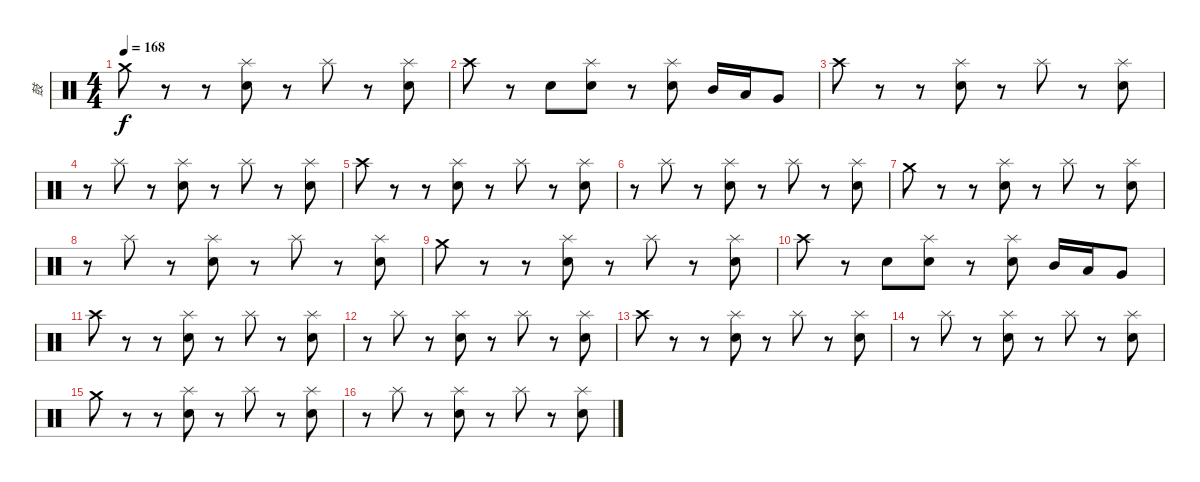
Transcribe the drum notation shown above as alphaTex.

\track ("鼓" "鼓") {instrument percussion}
\staff {score}
\articulation defaults
\ts (4 4)
\tempo 168
\clef neutral
\ks c "Crash medium (hit)".8{dy f}
r.8 r.8 ("Splash (hit)" "Snare (hit) 2").8 r.8 "Splash (hit)".8 r.8 ("Splash (hit)" "Snare (hit) 2").8 |
"Crash high (hit)".8 r.8 "Snare (hit) 2".8 ("Splash (hit)" "Snare (hit) 2").8 r.8 ("Splash (hit)" "Snare (hit) 2").8 "Mid Tom (hit)".16 "Low Tom (hit)".16 "Very Low Tom (hit)".8 |
"Crash high (hit)".8 r.8 r.8 ("Splash (hit)" "Snare (hit) 2").8 r.8 "Splash (hit)".8 r.8 ("Splash (hit)" "Snare (hit) 2").8 |
r.8 "Splash (hit)".8 r.8 ("Splash (hit)" "Snare (hit) 2").8 r.8 "Splash (hit)".8 r.8 ("Splash (hit)" "Snare (hit) 2").8 |
"Crash high (hit)".8 r.8 r.8 ("Splash (hit)" "Snare (hit) 2").8 r.8 "Splash (hit)".8 r.8 ("Splash (hit)" "Snare (hit) 2").8 |
r.8 "Splash (hit)".8 r.8 ("Splash (hit)" "Snare (hit) 2").8 r.8 "Splash (hit)".8 r.8 ("Splash (hit)" "Snare (hit) 2").8 |
"Crash medium (hit)".8 r.8 r.8 ("Splash (hit)" "Snare (hit) 2").8 r.8 "Splash (hit)".8 r.8 ("Splash (hit)" "Snare (hit) 2").8 |
r.8 "Splash (hit)".8 r.8 ("Splash (hit)" "Snare (hit) 2").8 r.8 "Splash (hit)".8 r.8 ("Splash (hit)" "Snare (hit) 2").8 |
"Crash medium (hit)".8 r.8 r.8 ("Splash (hit)" "Snare (hit) 2").8 r.8 "Splash (hit)".8 r.8 ("Splash (hit)" "Snare (hit) 2").8 |
"Crash high (hit)".8 r.8 "Snare (hit) 2".8 ("Splash (hit)" "Snare (hit) 2").8 r.8 ("Splash (hit)" "Snare (hit) 2").8 "Mid Tom (hit)".16 "Low Tom (hit)".16 "Very Low Tom (hit)".8 |
"Crash high (hit)".8 r.8 r.8 ("Splash (hit)" "Snare (hit) 2").8 r.8 "Splash (hit)".8 r.8 ("Splash (hit)" "Snare (hit) 2").8 |
r.8 "Splash (hit)".8 r.8 ("Splash (hit)" "Snare (hit) 2").8 r.8 "Splash (hit)".8 r.8 ("Splash (hit)" "Snare (hit) 2").8 |
"Crash high (hit)".8 r.8 r.8 ("Splash (hit)" "Snare (hit) 2").8 r.8 "Splash (hit)".8 r.8 ("Splash (hit)" "Snare (hit) 2").8 |
r.8 "Splash (hit)".8 r.8 ("Splash (hit)" "Snare (hit) 2").8 r.8 "Splash (hit)".8 r.8 ("Splash (hit)" "Snare (hit) 2").8 |
"Crash medium (hit)".8 r.8 r.8 ("Splash (hit)" "Snare (hit) 2").8 r.8 "Splash (hit)".8 r.8 ("Splash (hit)" "Snare (hit) 2").8 |
r.8 "Splash (hit)".8 r.8 ("Splash (hit)" "Snare (hit) 2").8 r.8 "Splash (hit)".8 r.8 ("Splash (hit)" "Snare (hit) 2").8
